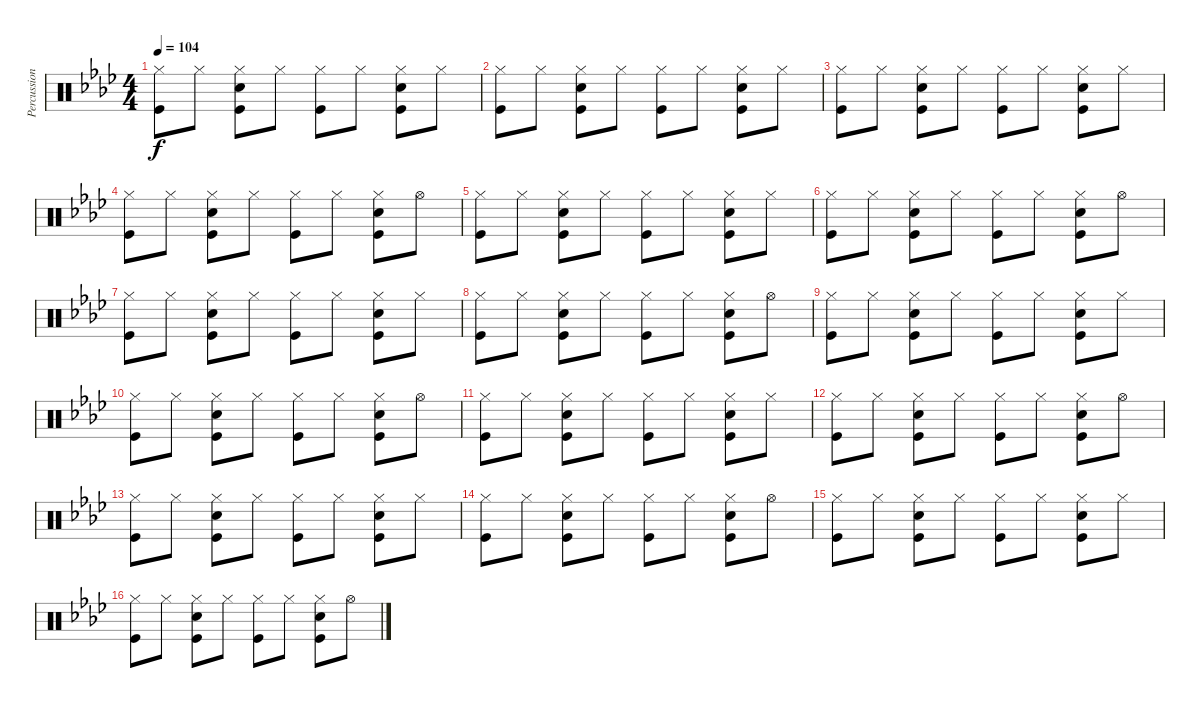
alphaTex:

\track ("Percussion" "Percussion") {instrument percussion}
\staff {score}
\articulation defaults
\ts (4 4)
\tempo 104
\clef neutral
\ks ab
("Hi-Hat (closed)" "Kick (hit)").8{dy f} "Hi-Hat (closed)".8 ("Hi-Hat (closed)" "Snare (hit) 2" "Kick (hit)").8 "Hi-Hat (closed)".8 ("Hi-Hat (closed)" "Kick (hit)").8 "Hi-Hat (closed)".8 ("Hi-Hat (closed)" "Snare (hit) 2" "Kick (hit)").8 "Hi-Hat (closed)".8 |
("Hi-Hat (closed)" "Kick (hit)").8 "Hi-Hat (closed)".8 ("Hi-Hat (closed)" "Snare (hit) 2" "Kick (hit)").8 "Hi-Hat (closed)".8 ("Hi-Hat (closed)" "Kick (hit)").8 "Hi-Hat (closed)".8 ("Hi-Hat (closed)" "Snare (hit) 2" "Kick (hit)").8 "Hi-Hat (closed)".8 |
("Hi-Hat (closed)" "Kick (hit)").8 "Hi-Hat (closed)".8 ("Hi-Hat (closed)" "Snare (hit) 2" "Kick (hit)").8 "Hi-Hat (closed)".8 ("Hi-Hat (closed)" "Kick (hit)").8 "Hi-Hat (closed)".8 ("Hi-Hat (closed)" "Snare (hit) 2" "Kick (hit)").8 "Hi-Hat (closed)".8 |
("Hi-Hat (closed)" "Kick (hit)").8 "Hi-Hat (closed)".8 ("Hi-Hat (closed)" "Snare (hit) 2" "Kick (hit)").8 "Hi-Hat (closed)".8 ("Hi-Hat (closed)" "Kick (hit)").8 "Hi-Hat (closed)".8 ("Hi-Hat (closed)" "Snare (hit) 2" "Kick (hit)").8 "Hi-Hat (open)".8 |
("Hi-Hat (closed)" "Kick (hit)").8 "Hi-Hat (closed)".8 ("Hi-Hat (closed)" "Snare (hit) 2" "Kick (hit)").8 "Hi-Hat (closed)".8 ("Hi-Hat (closed)" "Kick (hit)").8 "Hi-Hat (closed)".8 ("Hi-Hat (closed)" "Snare (hit) 2" "Kick (hit)").8 "Hi-Hat (closed)".8 |
("Hi-Hat (closed)" "Kick (hit)").8 "Hi-Hat (closed)".8 ("Hi-Hat (closed)" "Snare (hit) 2" "Kick (hit)").8 "Hi-Hat (closed)".8 ("Hi-Hat (closed)" "Kick (hit)").8 "Hi-Hat (closed)".8 ("Hi-Hat (closed)" "Snare (hit) 2" "Kick (hit)").8 "Hi-Hat (open)".8 |
("Hi-Hat (closed)" "Kick (hit)").8 "Hi-Hat (closed)".8 ("Hi-Hat (closed)" "Snare (hit) 2" "Kick (hit)").8 "Hi-Hat (closed)".8 ("Hi-Hat (closed)" "Kick (hit)").8 "Hi-Hat (closed)".8 ("Hi-Hat (closed)" "Snare (hit) 2" "Kick (hit)").8 "Hi-Hat (closed)".8 |
("Hi-Hat (closed)" "Kick (hit)").8 "Hi-Hat (closed)".8 ("Hi-Hat (closed)" "Snare (hit) 2" "Kick (hit)").8 "Hi-Hat (closed)".8 ("Hi-Hat (closed)" "Kick (hit)").8 "Hi-Hat (closed)".8 ("Hi-Hat (closed)" "Snare (hit) 2" "Kick (hit)").8 "Hi-Hat (open)".8 |
("Hi-Hat (closed)" "Kick (hit)").8 "Hi-Hat (closed)".8 ("Hi-Hat (closed)" "Snare (hit) 2" "Kick (hit)").8 "Hi-Hat (closed)".8 ("Hi-Hat (closed)" "Kick (hit)").8 "Hi-Hat (closed)".8 ("Hi-Hat (closed)" "Snare (hit) 2" "Kick (hit)").8 "Hi-Hat (closed)".8 |
("Hi-Hat (closed)" "Kick (hit)").8 "Hi-Hat (closed)".8 ("Hi-Hat (closed)" "Snare (hit) 2" "Kick (hit)").8 "Hi-Hat (closed)".8 ("Hi-Hat (closed)" "Kick (hit)").8 "Hi-Hat (closed)".8 ("Hi-Hat (closed)" "Snare (hit) 2" "Kick (hit)").8 "Hi-Hat (open)".8 |
("Hi-Hat (closed)" "Kick (hit)").8 "Hi-Hat (closed)".8 ("Hi-Hat (closed)" "Snare (hit) 2" "Kick (hit)").8 "Hi-Hat (closed)".8 ("Hi-Hat (closed)" "Kick (hit)").8 "Hi-Hat (closed)".8 ("Hi-Hat (closed)" "Snare (hit) 2" "Kick (hit)").8 "Hi-Hat (closed)".8 |
("Hi-Hat (closed)" "Kick (hit)").8 "Hi-Hat (closed)".8 ("Hi-Hat (closed)" "Snare (hit) 2" "Kick (hit)").8 "Hi-Hat (closed)".8 ("Hi-Hat (closed)" "Kick (hit)").8 "Hi-Hat (closed)".8 ("Hi-Hat (closed)" "Snare (hit) 2" "Kick (hit)").8 "Hi-Hat (open)".8 |
("Hi-Hat (closed)" "Kick (hit)").8 "Hi-Hat (closed)".8 ("Hi-Hat (closed)" "Snare (hit) 2" "Kick (hit)").8 "Hi-Hat (closed)".8 ("Hi-Hat (closed)" "Kick (hit)").8 "Hi-Hat (closed)".8 ("Hi-Hat (closed)" "Snare (hit) 2" "Kick (hit)").8 "Hi-Hat (closed)".8 |
("Hi-Hat (closed)" "Kick (hit)").8 "Hi-Hat (closed)".8 ("Hi-Hat (closed)" "Snare (hit) 2" "Kick (hit)").8 "Hi-Hat (closed)".8 ("Hi-Hat (closed)" "Kick (hit)").8 "Hi-Hat (closed)".8 ("Hi-Hat (closed)" "Snare (hit) 2" "Kick (hit)").8 "Hi-Hat (open)".8 |
("Hi-Hat (closed)" "Kick (hit)").8 "Hi-Hat (closed)".8 ("Hi-Hat (closed)" "Snare (hit) 2" "Kick (hit)").8 "Hi-Hat (closed)".8 ("Hi-Hat (closed)" "Kick (hit)").8 "Hi-Hat (closed)".8 ("Hi-Hat (closed)" "Snare (hit) 2" "Kick (hit)").8 "Hi-Hat (closed)".8 |
("Hi-Hat (closed)" "Kick (hit)").8 "Hi-Hat (closed)".8 ("Hi-Hat (closed)" "Snare (hit) 2" "Kick (hit)").8 "Hi-Hat (closed)".8 ("Hi-Hat (closed)" "Kick (hit)").8 "Hi-Hat (closed)".8 ("Hi-Hat (closed)" "Snare (hit) 2" "Kick (hit)").8 "Hi-Hat (open)".8
